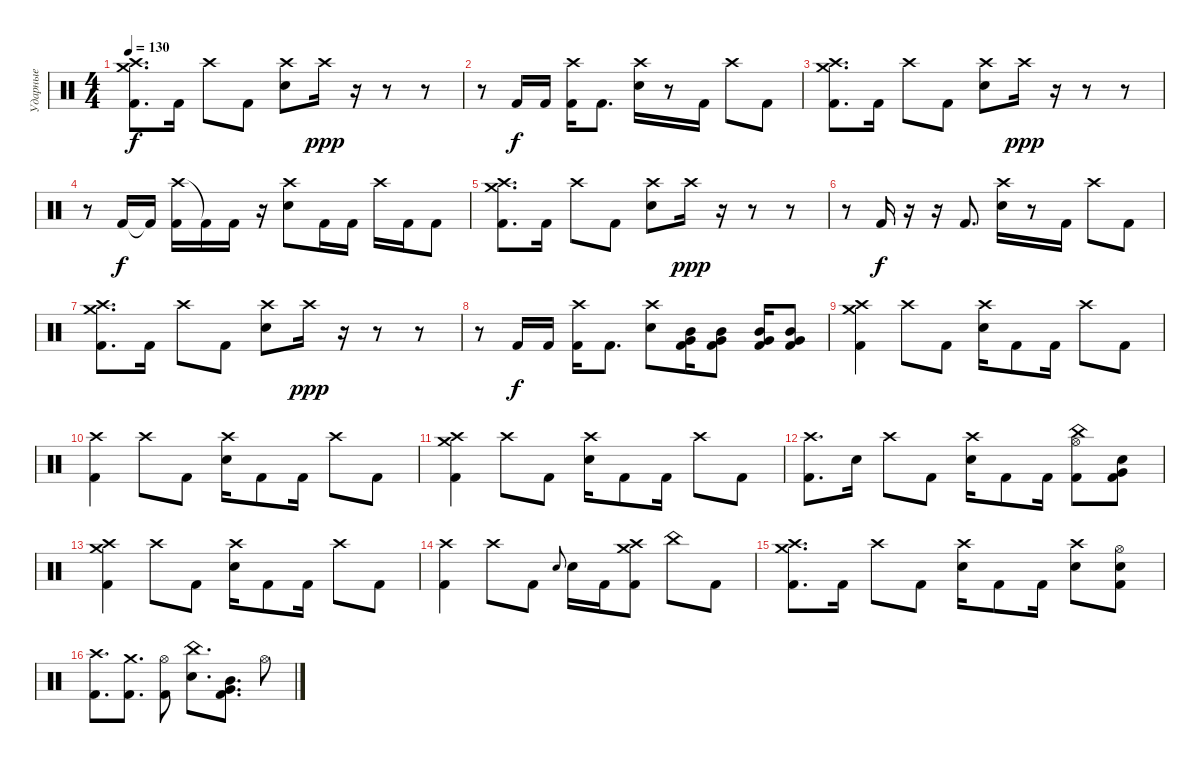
\track ("Ударные" "Ударные") {instrument percussion}
\staff {score}
\articulation defaults
\ts (4 4)
\tempo 130
\clef neutral
\ks c
("Crash high (hit)" "Crash medium (hit)" "Kick (hit) 2").8{d dy f} "Kick (hit) 2".16 "Crash high (hit)".8 "Kick (hit) 2".8 ("Crash high (hit)" "Electric Snare (hit)").8 "Crash high (hit)".16{dy ppp} r.16 r.8 r.8 |
r.8 "Kick (hit) 2".16{dy f} "Kick (hit) 2".16 ("Crash high (hit)" "Kick (hit) 2").16 "Kick (hit) 2".8{d} ("Crash high (hit)" "Electric Snare (hit)").16 r.8 "Kick (hit) 2".16 "Crash high (hit)".8 "Kick (hit) 2".8 |
("Crash high (hit)" "Crash medium (hit)" "Kick (hit) 2").8{d} "Kick (hit) 2".16 "Crash high (hit)".8 "Kick (hit) 2".8 ("Crash high (hit)" "Electric Snare (hit)").8 "Crash high (hit)".16{dy ppp} r.16 r.8 r.8 |
r.8 "Kick (hit) 2".16{dy f} "Kick (hit) 2"{t}.16 ("Crash high (hit)" "Kick (hit) 2").16 "Kick (hit) 2"{t}.16 "Kick (hit) 2".16 r.16 ("Crash high (hit)" "Electric Snare (hit)").8 "Kick (hit) 2".16 "Kick (hit) 2".16 "Crash high (hit)".16 "Kick (hit) 2".16 "Kick (hit) 2".8 |
("Crash high (hit)" "Crash medium (hit)" "Kick (hit) 2").8{d} "Kick (hit) 2".16 "Crash high (hit)".8 "Kick (hit) 2".8 ("Crash high (hit)" "Electric Snare (hit)").8 "Crash high (hit)".16{dy ppp} r.16 r.8 r.8 |
r.8 "Kick (hit) 2".16{dy f} r.16 r.16 "Kick (hit) 2".8{d} ("Crash high (hit)" "Electric Snare (hit)").16 r.8 "Kick (hit) 2".16 "Crash high (hit)".8 "Kick (hit) 2".8 |
("Crash high (hit)" "Crash medium (hit)" "Kick (hit) 2").8{d} "Kick (hit) 2".16 "Crash high (hit)".8 "Kick (hit) 2".8 ("Crash high (hit)" "Electric Snare (hit)").8 "Crash high (hit)".16{dy ppp} r.16 r.8 r.8 |
r.8 "Kick (hit) 2".16{dy f} "Kick (hit) 2".16 ("Crash high (hit)" "Kick (hit) 2").16 "Kick (hit) 2".8{d} ("Crash high (hit)" "Electric Snare (hit)").8 ("Mid Tom (hit)" "Very Low Tom (hit)" "Kick (hit) 2").16 ("Mid Tom (hit)" "Very Low Tom (hit)" "Kick (hit) 2").8 ("Mid Tom (hit)" "Very Low Tom (hit)" "Kick (hit) 2").16 ("Mid Tom (hit)" "Very Low Tom (hit)" "Kick (hit) 2").8 |
("Crash high (hit)" "Crash medium (hit)" "Kick (hit) 2").4 "Crash high (hit)".8 "Kick (hit) 2".8 ("Crash high (hit)" "Electric Snare (hit)").16 "Kick (hit) 2".8 "Kick (hit) 2".16 "Crash high (hit)".8 "Kick (hit) 2".8 |
("Crash high (hit)" "Kick (hit) 2").4 "Crash high (hit)".8 "Kick (hit) 2".8 ("Crash high (hit)" "Electric Snare (hit)").16 "Kick (hit) 2".8 "Kick (hit) 2".16 "Crash high (hit)".8 "Kick (hit) 2".8 |
("Crash high (hit)" "Crash medium (hit)" "Kick (hit) 2").4 "Crash high (hit)".8 "Kick (hit) 2".8 ("Crash high (hit)" "Electric Snare (hit)").16 "Kick (hit) 2".8 "Kick (hit) 2".16 "Crash high (hit)".8 "Kick (hit) 2".8 |
("Crash high (hit)" "Kick (hit) 2").8{d} "Electric Snare (hit)".16 "Crash high (hit)".8 "Kick (hit) 2".8 ("Crash high (hit)" "Electric Snare (hit)").16 "Kick (hit) 2".8 "Kick (hit) 2".16 ("Hi-Hat (open)" "China (hit)" "Kick (hit) 2").8 ("Electric Snare (hit)" "Very Low Tom (hit)" "Kick (hit) 2").8 |
("Crash high (hit)" "Crash medium (hit)" "Kick (hit) 2").4 "Crash high (hit)".8 "Kick (hit) 2".8 ("Crash high (hit)" "Electric Snare (hit)").16 "Kick (hit) 2".8 "Kick (hit) 2".16 "Crash high (hit)".8 "Kick (hit) 2".8 |
("Crash high (hit)" "Kick (hit) 2").4 "Crash high (hit)".8 "Kick (hit) 2".8 "Electric Snare (hit)".8{gr onbeat} "Electric Snare (hit)".16 "Kick (hit) 2".16 ("Crash medium (hit)" "Crash high (hit)" "Kick (hit) 2").8 "China (hit)".8 "Kick (hit) 2".8 |
("Crash high (hit)" "Crash medium (hit)" "Kick (hit) 2").8{d} "Kick (hit) 2".16 "Crash high (hit)".8 "Kick (hit) 2".8 ("Crash high (hit)" "Electric Snare (hit)").16 "Kick (hit) 2".8 "Kick (hit) 2".16 ("Crash high (hit)" "Electric Snare (hit)").8 ("Hi-Hat (open)" "Electric Snare (hit)" "Kick (hit) 2").8 |
("Crash high (hit)" "Kick (hit) 2").8{d} ("Crash medium (hit)" "Kick (hit) 2").8{d} ("Hi-Hat (open)" "Kick (hit) 2").8 ("China (hit)" "Electric Snare (hit)").8{d} ("Mid Tom (hit)" "Very Low Tom (hit)" "Kick (hit) 2").8{d} "Hi-Hat (open)".8
